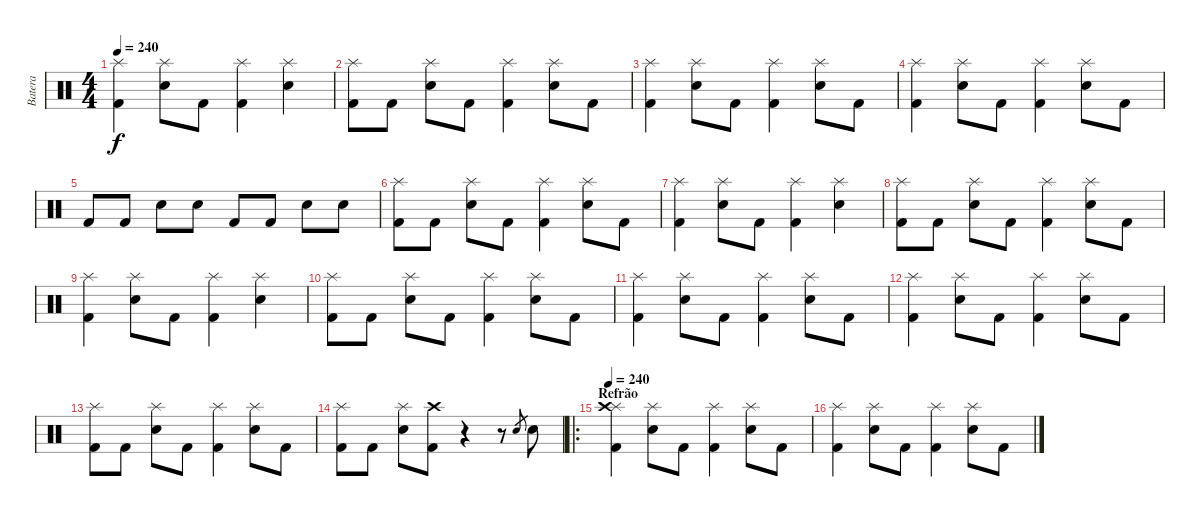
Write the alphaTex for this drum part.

\track ("Batera" "Batera") {instrument percussion}
\staff {score}
\articulation defaults
\ts (4 4)
\tempo 240
\clef neutral
\ks c
("Splash (hit)" "Kick (hit) 2").4{dy f} ("Splash (hit)" "Snare (hit) 2").8 "Kick (hit) 2".8 ("Splash (hit)" "Kick (hit) 2").4 ("Splash (hit)" "Snare (hit) 2").4 |
("Splash (hit)" "Kick (hit) 2").8 "Kick (hit) 2".8 ("Splash (hit)" "Snare (hit) 2").8 "Kick (hit) 2".8 ("Splash (hit)" "Kick (hit) 2").4 ("Splash (hit)" "Snare (hit) 2").8 "Kick (hit) 2".8 |
("Splash (hit)" "Kick (hit) 2").4 ("Splash (hit)" "Snare (hit) 2").8 "Kick (hit) 2".8 ("Splash (hit)" "Kick (hit) 2").4 ("Splash (hit)" "Snare (hit) 2").8 "Kick (hit) 2".8 |
("Splash (hit)" "Kick (hit) 2").4 ("Splash (hit)" "Snare (hit) 2").8 "Kick (hit) 2".8 ("Splash (hit)" "Kick (hit) 2").4 ("Splash (hit)" "Snare (hit) 2").8 "Kick (hit) 2".8 |
"Kick (hit) 2".8 "Kick (hit) 2".8 "Snare (hit) 2".8 "Snare (hit) 2".8 "Kick (hit) 2".8 "Kick (hit) 2".8 "Snare (hit) 2".8 "Snare (hit) 2".8 |
("Splash (hit)" "Kick (hit) 2").8 "Kick (hit) 2".8 ("Splash (hit)" "Snare (hit) 2").8 "Kick (hit) 2".8 ("Splash (hit)" "Kick (hit) 2").4 ("Splash (hit)" "Snare (hit) 2").8 "Kick (hit) 2".8 |
("Splash (hit)" "Kick (hit) 2").4 ("Splash (hit)" "Snare (hit) 2").8 "Kick (hit) 2".8 ("Splash (hit)" "Kick (hit) 2").4 ("Splash (hit)" "Snare (hit) 2").4 |
("Splash (hit)" "Kick (hit) 2").8 "Kick (hit) 2".8 ("Splash (hit)" "Snare (hit) 2").8 "Kick (hit) 2".8 ("Splash (hit)" "Kick (hit) 2").4 ("Splash (hit)" "Snare (hit) 2").8 "Kick (hit) 2".8 |
("Splash (hit)" "Kick (hit) 2").4 ("Splash (hit)" "Snare (hit) 2").8 "Kick (hit) 2".8 ("Splash (hit)" "Kick (hit) 2").4 ("Splash (hit)" "Snare (hit) 2").4 |
("Splash (hit)" "Kick (hit) 2").8 "Kick (hit) 2".8 ("Splash (hit)" "Snare (hit) 2").8 "Kick (hit) 2".8 ("Splash (hit)" "Kick (hit) 2").4 ("Splash (hit)" "Snare (hit) 2").8 "Kick (hit) 2".8 |
("Splash (hit)" "Kick (hit) 2").4 ("Splash (hit)" "Snare (hit) 2").8 "Kick (hit) 2".8 ("Splash (hit)" "Kick (hit) 2").4 ("Splash (hit)" "Snare (hit) 2").8 "Kick (hit) 2".8 |
("Splash (hit)" "Kick (hit) 2").4 ("Splash (hit)" "Snare (hit) 2").8 "Kick (hit) 2".8 ("Splash (hit)" "Kick (hit) 2").4 ("Splash (hit)" "Snare (hit) 2").8 "Kick (hit) 2".8 |
("Splash (hit)" "Kick (hit) 2").8 "Kick (hit) 2".8 ("Splash (hit)" "Snare (hit) 2").8 "Kick (hit) 2".8 ("Splash (hit)" "Kick (hit) 2").4 ("Splash (hit)" "Snare (hit) 2").8 "Kick (hit) 2".8 |
("Splash (hit)" "Kick (hit) 2").8 "Kick (hit) 2".8 ("Splash (hit)" "Snare (hit) 2").8 ("Crash high (hit)" "Kick (hit) 2").8 r.4 r.8 "Snare (hit) 2".8{gr} "Snare (hit) 2".8 |
\ro
\section ("" "Refrão")
\tempo 240
("Splash (hit)" "Crash high (hit)" "Kick (hit) 2").4 ("Splash (hit)" "Snare (hit) 2").8 "Kick (hit) 2".8 ("Splash (hit)" "Kick (hit) 2").4 ("Splash (hit)" "Snare (hit) 2").8 "Kick (hit) 2".8 |
("Splash (hit)" "Kick (hit) 2").4 ("Splash (hit)" "Snare (hit) 2").8 "Kick (hit) 2".8 ("Splash (hit)" "Kick (hit) 2").4 ("Splash (hit)" "Snare (hit) 2").8 "Kick (hit) 2".8
